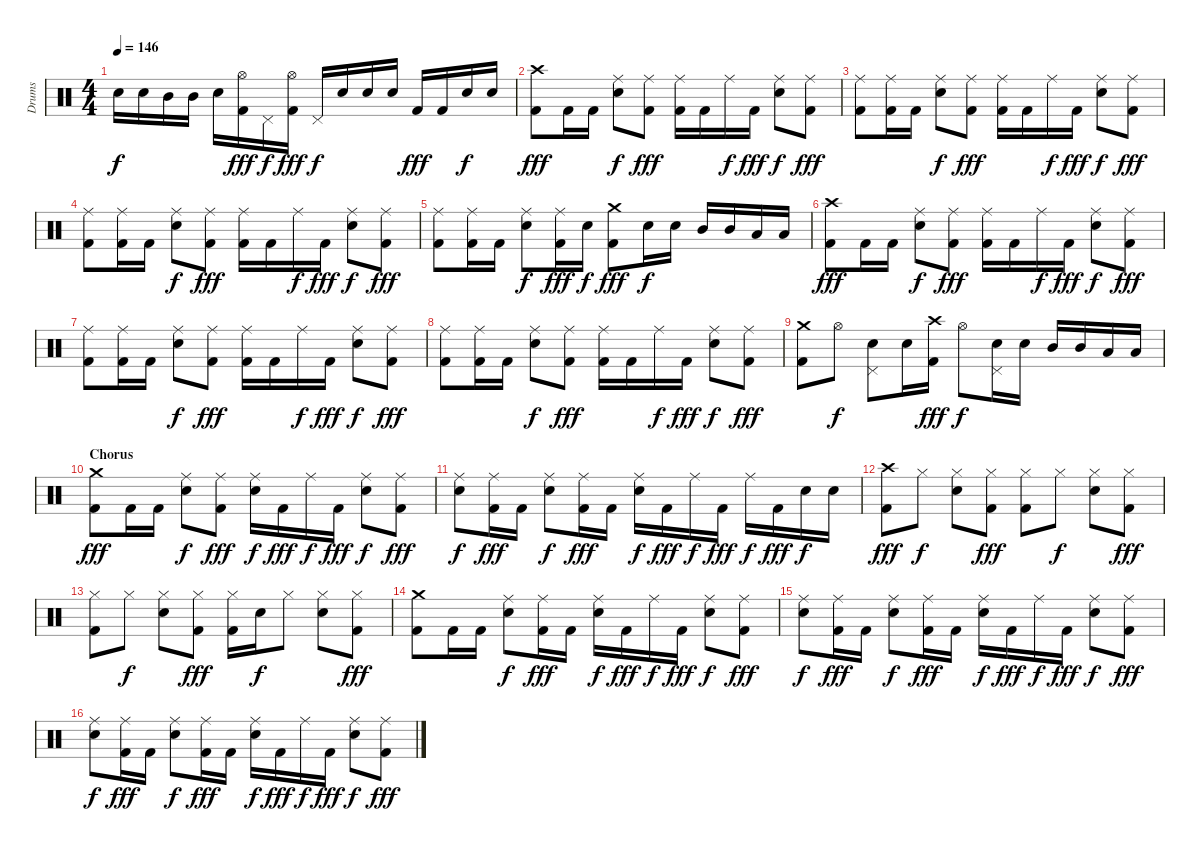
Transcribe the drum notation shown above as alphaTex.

\track ("Drums" "Drums") {instrument percussion}
\staff {score}
\articulation defaults
\ts (4 4)
\tempo 146
\clef neutral
\ks c "Snare (hit) 2".16{dy f} "Snare (hit) 2".16 "Mid Tom (hit)".16 "Mid Tom (hit)".16 "Snare (hit) 2".16
("Hi-Hat (open)" "Kick (hit) 2").16{dy fff} "Pedal Hi-Hat (hit)".16{dy f} ("Hi-Hat (open)" "Kick (hit) 2").16{dy fff} "Pedal Hi-Hat (hit)".16{dy f} "Snare (hit) 2".16 "Snare (hit) 2".16 "Snare (hit) 2".16 "Kick (hit) 2".16{dy fff} "Kick (hit) 2".16 "Snare (hit) 2".16{dy f} "Snare (hit) 2".16 |
("Crash high (hit)" "Kick (hit) 2").8{dy fff} "Kick (hit) 2".16 "Kick (hit) 2".16 ("Ride (middle)" "Snare (hit) 2").8{dy f} ("Ride (middle)" "Kick (hit) 2").8{dy fff} ("Ride (middle)" "Kick (hit) 2").16 "Kick (hit) 2".16 "Ride (middle)".16{dy f} "Kick (hit) 2".16{dy fff} ("Ride (middle)" "Snare (hit) 2").8{dy f} ("Ride (middle)" "Kick (hit) 2").8{dy fff} |
("Ride (middle)" "Kick (hit) 2").8 ("Ride (middle)" "Kick (hit) 2").16 "Kick (hit) 2".16 ("Ride (middle)" "Snare (hit) 2").8{dy f} ("Ride (middle)" "Kick (hit) 2").8{dy fff} ("Ride (middle)" "Kick (hit) 2").16 "Kick (hit) 2".16 "Ride (middle)".16{dy f} "Kick (hit) 2".16{dy fff} ("Ride (middle)" "Snare (hit) 2").8{dy f} ("Ride (middle)" "Kick (hit) 2").8{dy fff} |
("Ride (middle)" "Kick (hit) 2").8 ("Ride (middle)" "Kick (hit) 2").16 "Kick (hit) 2".16 ("Ride (middle)" "Snare (hit) 2").8{dy f} ("Ride (middle)" "Kick (hit) 2").8{dy fff} ("Ride (middle)" "Kick (hit) 2").16 "Kick (hit) 2".16 "Ride (middle)".16{dy f} "Kick (hit) 2".16{dy fff} ("Ride (middle)" "Snare (hit) 2").8{dy f} ("Ride (middle)" "Kick (hit) 2").8{dy fff} |
("Ride (middle)" "Kick (hit) 2").8 ("Ride (middle)" "Kick (hit) 2").16 "Kick (hit) 2".16 ("Ride (middle)" "Snare (hit) 2").8{dy f} ("Ride (middle)" "Kick (hit) 2").16{dy fff} "Snare (hit) 2".16{dy f} ("Crash medium (hit)" "Kick (hit) 2").8{dy fff} "Snare (hit) 2".16{dy f} "Snare (hit) 2".16 "Mid Tom (hit)".16 "Mid Tom (hit)".16 "Low Tom (hit)".16 "Low Tom (hit)".16 |
("Crash high (hit)" "Kick (hit) 2").8{dy fff} "Kick (hit) 2".16 "Kick (hit) 2".16 ("Ride (middle)" "Snare (hit) 2").8{dy f} ("Ride (middle)" "Kick (hit) 2").8{dy fff} ("Ride (middle)" "Kick (hit) 2").16 "Kick (hit) 2".16 "Ride (middle)".16{dy f} "Kick (hit) 2".16{dy fff} ("Ride (middle)" "Snare (hit) 2").8{dy f} ("Ride (middle)" "Kick (hit) 2").8{dy fff} |
("Ride (middle)" "Kick (hit) 2").8 ("Ride (middle)" "Kick (hit) 2").16 "Kick (hit) 2".16 ("Ride (middle)" "Snare (hit) 2").8{dy f} ("Ride (middle)" "Kick (hit) 2").8{dy fff} ("Ride (middle)" "Kick (hit) 2").16 "Kick (hit) 2".16 "Ride (middle)".16{dy f} "Kick (hit) 2".16{dy fff} ("Ride (middle)" "Snare (hit) 2").8{dy f} ("Ride (middle)" "Kick (hit) 2").8{dy fff} |
("Ride (middle)" "Kick (hit) 2").8 ("Ride (middle)" "Kick (hit) 2").16 "Kick (hit) 2".16 ("Ride (middle)" "Snare (hit) 2").8{dy f} ("Ride (middle)" "Kick (hit) 2").8{dy fff} ("Ride (middle)" "Kick (hit) 2").16 "Kick (hit) 2".16 "Ride (middle)".16{dy f} "Kick (hit) 2".16{dy fff} ("Ride (middle)" "Snare (hit) 2").8{dy f} ("Ride (middle)" "Kick (hit) 2").8{dy fff} |
("Crash medium (hit)" "Kick (hit) 2").8 "Hi-Hat (open)".8{dy f} ("Pedal Hi-Hat (hit)" "Snare (hit) 2").8 "Snare (hit) 2".16 ("Crash high (hit)" "Kick (hit) 2").16{dy fff} "Hi-Hat (open)".8{dy f} ("Pedal Hi-Hat (hit)" "Snare (hit) 2").16 "Snare (hit) 2".16 "Mid Tom (hit)".16 "Mid Tom (hit)".16 "Low Tom (hit)".16 "Low Tom (hit)".16 |
\section ("" "Chorus")
("Crash medium (hit)" "Kick (hit) 2").8{dy fff} "Kick (hit) 2".16 "Kick (hit) 2".16 ("Ride (middle)" "Snare (hit) 2").8{dy f} ("Ride (middle)" "Kick (hit) 2").8{dy fff} ("Ride (middle)" "Snare (hit) 2").16{dy f} "Kick (hit) 2".16{dy fff} "Ride (middle)".16{dy f} "Kick (hit) 2".16{dy fff} ("Ride (middle)" "Snare (hit) 2").8{dy f} ("Ride (middle)" "Kick (hit) 2").8{dy fff} |
("Ride (middle)" "Snare (hit) 2").8{dy f} ("Ride (middle)" "Kick (hit) 2").16{dy fff} "Kick (hit) 2".16 ("Ride (middle)" "Snare (hit) 2").8{dy f} ("Ride (middle)" "Kick (hit) 2").16{dy fff} "Kick (hit) 2".16 ("Ride (middle)" "Snare (hit) 2").16{dy f} "Kick (hit) 2".16{dy fff} "Ride (middle)".16{dy f} "Kick (hit) 2".16{dy fff} "Ride (middle)".16{dy f} "Kick (hit) 2".16{dy fff} "Snare (hit) 2".16{dy f} "Snare (hit) 2".16 |
("Crash high (hit)" "Kick (hit) 2").8{dy fff} "Hi-Hat (closed)".8{dy f} ("Hi-Hat (closed)" "Snare (hit) 2").8 ("Hi-Hat (closed)" "Kick (hit) 2").8{dy fff} ("Hi-Hat (closed)" "Kick (hit) 2").8 "Hi-Hat (closed)".8{dy f} ("Hi-Hat (closed)" "Snare (hit) 2").8 ("Hi-Hat (closed)" "Kick (hit) 2").8{dy fff} |
("Hi-Hat (closed)" "Kick (hit) 2").8 "Hi-Hat (closed)".8{dy f} ("Hi-Hat (closed)" "Snare (hit) 2").8 ("Hi-Hat (closed)" "Kick (hit) 2").8{dy fff} ("Hi-Hat (closed)" "Kick (hit) 2").16 "Snare (hit) 2".16{dy f} "Hi-Hat (closed)".8 ("Hi-Hat (closed)" "Snare (hit) 2").8 ("Hi-Hat (closed)" "Kick (hit) 2").8{dy fff} |
("Crash medium (hit)" "Kick (hit) 2").8 "Kick (hit) 2".16 "Kick (hit) 2".16 ("Ride (middle)" "Snare (hit) 2").8{dy f} ("Ride (middle)" "Kick (hit) 2").16{dy fff} "Kick (hit) 2".16 ("Ride (middle)" "Snare (hit) 2").16{dy f} "Kick (hit) 2".16{dy fff} "Ride (middle)".16{dy f} "Kick (hit) 2".16{dy fff} ("Ride (middle)" "Snare (hit) 2").8{dy f} ("Ride (middle)" "Kick (hit) 2").8{dy fff} |
("Ride (middle)" "Snare (hit) 2").8{dy f} ("Ride (middle)" "Kick (hit) 2").16{dy fff} "Kick (hit) 2".16 ("Ride (middle)" "Snare (hit) 2").8{dy f} ("Ride (middle)" "Kick (hit) 2").16{dy fff} "Kick (hit) 2".16 ("Ride (middle)" "Snare (hit) 2").16{dy f} "Kick (hit) 2".16{dy fff} "Ride (middle)".16{dy f} "Kick (hit) 2".16{dy fff} ("Ride (middle)" "Snare (hit) 2").8{dy f} ("Ride (middle)" "Kick (hit) 2").8{dy fff} |
("Ride (middle)" "Snare (hit) 2").8{dy f} ("Ride (middle)" "Kick (hit) 2").16{dy fff} "Kick (hit) 2".16 ("Ride (middle)" "Snare (hit) 2").8{dy f} ("Ride (middle)" "Kick (hit) 2").16{dy fff} "Kick (hit) 2".16 ("Ride (middle)" "Snare (hit) 2").16{dy f} "Kick (hit) 2".16{dy fff} "Ride (middle)".16{dy f} "Kick (hit) 2".16{dy fff} ("Ride (middle)" "Snare (hit) 2").8{dy f} ("Ride (middle)" "Kick (hit) 2").8{dy fff}
